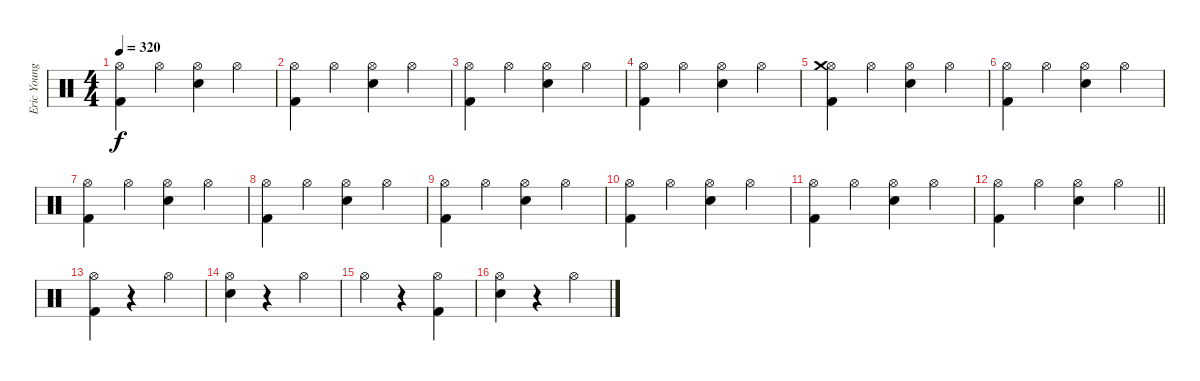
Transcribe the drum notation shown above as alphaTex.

\track ("Eric Young (Drums)" "Eric Young") {instrument percussion}
\staff {score}
\articulation defaults
\ts (4 4)
\tempo 320
\clef neutral
\ks c
("Hi-Hat (open)" "Kick (hit) 2").4{dy f} "Hi-Hat (open)".4 ("Hi-Hat (open)" "Snare (hit) 2").4 "Hi-Hat (open)".4 |
("Hi-Hat (open)" "Kick (hit) 2").4 "Hi-Hat (open)".4 ("Hi-Hat (open)" "Snare (hit) 2").4 "Hi-Hat (open)".4 |
("Hi-Hat (open)" "Kick (hit) 2").4 "Hi-Hat (open)".4 ("Hi-Hat (open)" "Snare (hit) 2").4 "Hi-Hat (open)".4 |
("Hi-Hat (open)" "Kick (hit) 2").4 "Hi-Hat (open)".4 ("Hi-Hat (open)" "Snare (hit) 2").4 "Hi-Hat (open)".4 |
("Hi-Hat (open)" "Kick (hit) 2" "Crash medium (hit)").4 "Hi-Hat (open)".4 ("Hi-Hat (open)" "Snare (hit) 2").4 "Hi-Hat (open)".4 |
("Hi-Hat (open)" "Kick (hit) 2").4 "Hi-Hat (open)".4 ("Hi-Hat (open)" "Snare (hit) 2").4 "Hi-Hat (open)".4 |
("Hi-Hat (open)" "Kick (hit) 2").4 "Hi-Hat (open)".4 ("Hi-Hat (open)" "Snare (hit) 2").4 "Hi-Hat (open)".4 |
("Hi-Hat (open)" "Kick (hit) 2").4 "Hi-Hat (open)".4 ("Hi-Hat (open)" "Snare (hit) 2").4 "Hi-Hat (open)".4 |
("Hi-Hat (open)" "Kick (hit) 2").4 "Hi-Hat (open)".4 ("Hi-Hat (open)" "Snare (hit) 2").4 "Hi-Hat (open)".4 |
("Hi-Hat (open)" "Kick (hit) 2").4 "Hi-Hat (open)".4 ("Hi-Hat (open)" "Snare (hit) 2").4 "Hi-Hat (open)".4 |
("Hi-Hat (open)" "Kick (hit) 2").4 "Hi-Hat (open)".4 ("Hi-Hat (open)" "Snare (hit) 2").4 "Hi-Hat (open)".4 |
\barLineRight lightlight
("Hi-Hat (open)" "Kick (hit) 2").4 "Hi-Hat (open)".4 ("Hi-Hat (open)" "Snare (hit) 2").4 "Hi-Hat (open)".4 |
("Hi-Hat (open)" "Kick (hit) 2").4 r.4 "Hi-Hat (open)".4 |
("Hi-Hat (open)" "Snare (hit) 2").4 r.4 "Hi-Hat (open)".4 |
"Hi-Hat (open)".4 r.4 ("Hi-Hat (open)" "Kick (hit) 2").4 |
("Hi-Hat (open)" "Snare (hit) 2").4 r.4 "Hi-Hat (open)".4
